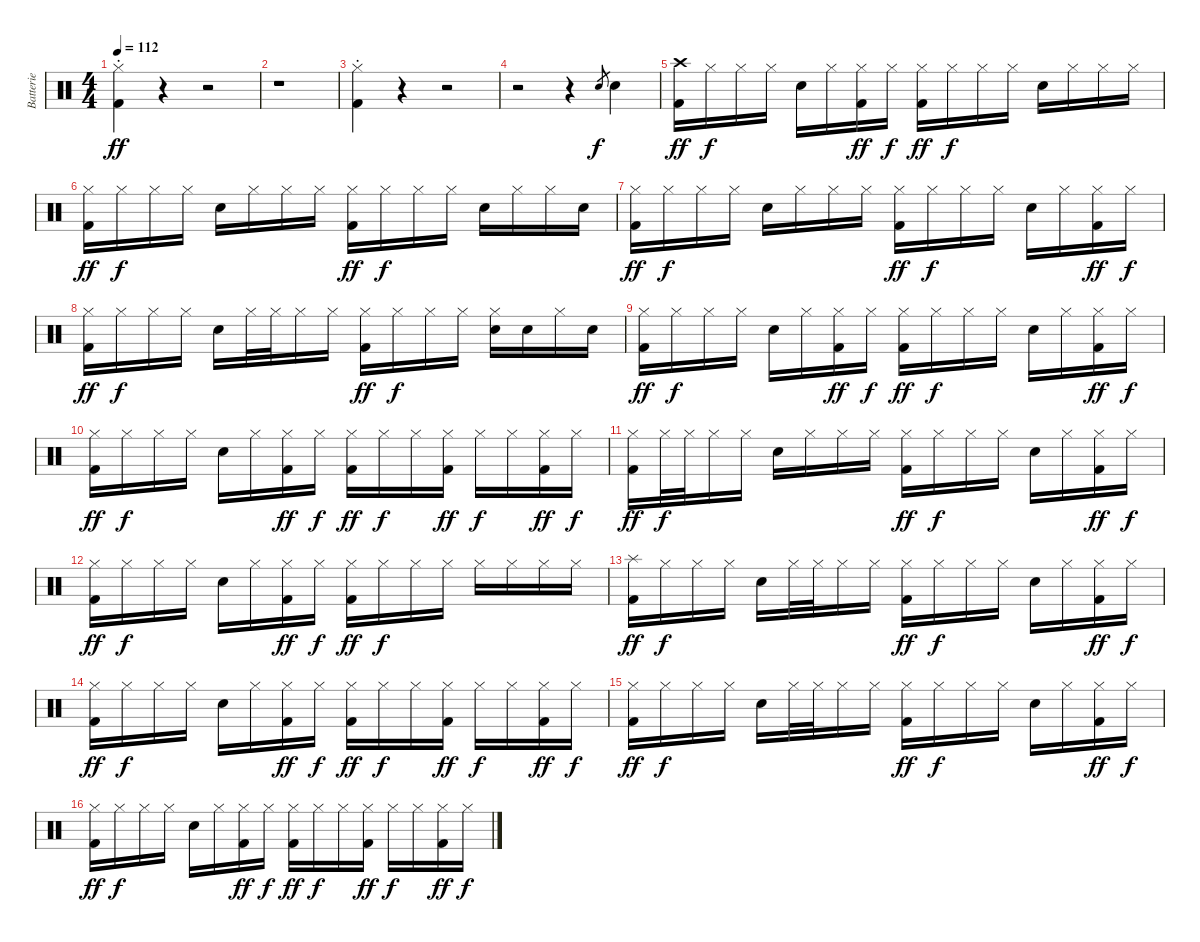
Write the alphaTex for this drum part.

\track ("Batterie" "Batterie") {instrument percussion}
\staff {score}
\articulation defaults
\ts (4 4)
\tempo 112
\clef neutral
\ks c
("Hi-Hat (closed)"{st} "Kick (hit) 2"{st}).4{dy ff} r.4 r.2 |
r.1 |
("Hi-Hat (closed)"{st} "Kick (hit) 2"{st}).4 r.4 r.2 |
r.2 r.4 "Snare (hit) 2".8{gr dy f} "Snare (hit) 2".4 |
("Crash high (hit)" "Kick (hit) 2").16{dy ff} "Hi-Hat (closed)".16{dy f} "Hi-Hat (closed)".16 "Hi-Hat (closed)".16 "Snare (hit) 2".16 "Hi-Hat (closed)".16 ("Hi-Hat (closed)" "Kick (hit) 2").16{dy ff} "Hi-Hat (closed)".16{dy f} ("Hi-Hat (closed)" "Kick (hit) 2").16{dy ff} "Hi-Hat (closed)".16{dy f} "Hi-Hat (closed)".16 "Hi-Hat (closed)".16 "Snare (hit) 2".16 "Hi-Hat (closed)".16 "Hi-Hat (closed)".16 "Hi-Hat (closed)".16 |
("Hi-Hat (closed)" "Kick (hit) 2").16{dy ff} "Hi-Hat (closed)".16{dy f} "Hi-Hat (closed)".16 "Hi-Hat (closed)".16 "Snare (hit) 2".16 "Hi-Hat (closed)".16 "Hi-Hat (closed)".16 "Hi-Hat (closed)".16 ("Hi-Hat (closed)" "Kick (hit) 2").16{dy ff} "Hi-Hat (closed)".16{dy f} "Hi-Hat (closed)".16 "Hi-Hat (closed)".16 "Snare (hit) 2".16 "Hi-Hat (closed)".16 "Hi-Hat (closed)".16 "Snare (hit) 2".16 |
("Hi-Hat (closed)" "Kick (hit) 2").16{dy ff} "Hi-Hat (closed)".16{dy f} "Hi-Hat (closed)".16 "Hi-Hat (closed)".16 "Snare (hit) 2".16 "Hi-Hat (closed)".16 "Hi-Hat (closed)".16 "Hi-Hat (closed)".16 ("Hi-Hat (closed)" "Kick (hit) 2").16{dy ff} "Hi-Hat (closed)".16{dy f} "Hi-Hat (closed)".16 "Hi-Hat (closed)".16 "Snare (hit) 2".16 "Hi-Hat (closed)".16 ("Hi-Hat (closed)" "Kick (hit) 2").16{dy ff} "Hi-Hat (closed)".16{dy f} |
("Hi-Hat (closed)" "Kick (hit) 2").16{dy ff} "Hi-Hat (closed)".16{dy f} "Hi-Hat (closed)".16 "Hi-Hat (closed)".16 "Snare (hit) 2".16 "Hi-Hat (closed)".32 "Hi-Hat (closed)".32 "Hi-Hat (closed)".16 "Hi-Hat (closed)".16 ("Hi-Hat (closed)" "Kick (hit) 2").16{dy ff} "Hi-Hat (closed)".16{dy f} "Hi-Hat (closed)".16 "Hi-Hat (closed)".16 ("Hi-Hat (closed)" "Snare (hit) 2").16 "Snare (hit) 2".16 "Hi-Hat (closed)".16 "Snare (hit) 2".16 |
("Hi-Hat (closed)" "Kick (hit) 2").16{dy ff} "Hi-Hat (closed)".16{dy f} "Hi-Hat (closed)".16 "Hi-Hat (closed)".16 "Snare (hit) 2".16 "Hi-Hat (closed)".16 ("Hi-Hat (closed)" "Kick (hit) 2").16{dy ff} "Hi-Hat (closed)".16{dy f} ("Hi-Hat (closed)" "Kick (hit) 2").16{dy ff} "Hi-Hat (closed)".16{dy f} "Hi-Hat (closed)".16 "Hi-Hat (closed)".16 "Snare (hit) 2".16 "Hi-Hat (closed)".16 ("Hi-Hat (closed)" "Kick (hit) 2").16{dy ff} "Hi-Hat (closed)".16{dy f} |
("Hi-Hat (closed)" "Kick (hit) 2").16{dy ff} "Hi-Hat (closed)".16{dy f} "Hi-Hat (closed)".16 "Hi-Hat (closed)".16 "Snare (hit) 2".16 "Hi-Hat (closed)".16 ("Hi-Hat (closed)" "Kick (hit) 2").16{dy ff} "Hi-Hat (closed)".16{dy f} ("Hi-Hat (closed)" "Kick (hit) 2").16{dy ff} "Hi-Hat (closed)".16{dy f} "Hi-Hat (closed)".16 ("Hi-Hat (closed)" "Kick (hit) 2").16{dy ff} "Hi-Hat (closed)".16{dy f} "Hi-Hat (closed)".16 ("Hi-Hat (closed)" "Kick (hit) 2").16{dy ff} "Hi-Hat (closed)".16{dy f} |
("Hi-Hat (closed)" "Kick (hit) 2").16{dy ff} "Hi-Hat (closed)".32{dy f} "Hi-Hat (closed)".32 "Hi-Hat (closed)".16 "Hi-Hat (closed)".16 "Snare (hit) 2".16 "Hi-Hat (closed)".16 "Hi-Hat (closed)".16 "Hi-Hat (closed)".16 ("Hi-Hat (closed)" "Kick (hit) 2").16{dy ff} "Hi-Hat (closed)".16{dy f} "Hi-Hat (closed)".16 "Hi-Hat (closed)".16 "Snare (hit) 2".16 "Hi-Hat (closed)".16 ("Hi-Hat (closed)" "Kick (hit) 2").16{dy ff} "Hi-Hat (closed)".16{dy f} |
("Hi-Hat (closed)" "Kick (hit) 2").16{dy ff} "Hi-Hat (closed)".16{dy f} "Hi-Hat (closed)".16 "Hi-Hat (closed)".16 "Snare (hit) 2".16 "Hi-Hat (closed)".16 ("Hi-Hat (closed)" "Kick (hit) 2").16{dy ff} "Hi-Hat (closed)".16{dy f} ("Hi-Hat (closed)" "Kick (hit) 2").16{dy ff} "Hi-Hat (closed)".16{dy f} "Hi-Hat (closed)".16 "Hi-Hat (closed)".16 "Hi-Hat (closed)".16 "Hi-Hat (closed)".16 "Hi-Hat (closed)".16 "Hi-Hat (closed)".16 |
("Splash (hit)" "Kick (hit) 2").16{dy ff} "Hi-Hat (closed)".16{dy f} "Hi-Hat (closed)".16 "Hi-Hat (closed)".16 "Snare (hit) 2".16 "Hi-Hat (closed)".32 "Hi-Hat (closed)".32 "Hi-Hat (closed)".16 "Hi-Hat (closed)".16 ("Hi-Hat (closed)" "Kick (hit) 2").16{dy ff} "Hi-Hat (closed)".16{dy f} "Hi-Hat (closed)".16 "Hi-Hat (closed)".16 "Snare (hit) 2".16 "Hi-Hat (closed)".16 ("Hi-Hat (closed)" "Kick (hit) 2").16{dy ff} "Hi-Hat (closed)".16{dy f} |
("Hi-Hat (closed)" "Kick (hit) 2").16{dy ff} "Hi-Hat (closed)".16{dy f} "Hi-Hat (closed)".16 "Hi-Hat (closed)".16 "Snare (hit) 2".16 "Hi-Hat (closed)".16 ("Hi-Hat (closed)" "Kick (hit) 2").16{dy ff} "Hi-Hat (closed)".16{dy f} ("Hi-Hat (closed)" "Kick (hit) 2").16{dy ff} "Hi-Hat (closed)".16{dy f} "Hi-Hat (closed)".16 ("Hi-Hat (closed)" "Kick (hit) 2").16{dy ff} "Hi-Hat (closed)".16{dy f} "Hi-Hat (closed)".16 ("Hi-Hat (closed)" "Kick (hit) 2").16{dy ff} "Hi-Hat (closed)".16{dy f} |
("Hi-Hat (closed)" "Kick (hit) 2").16{dy ff} "Hi-Hat (closed)".16{dy f} "Hi-Hat (closed)".16 "Hi-Hat (closed)".16 "Snare (hit) 2".16 "Hi-Hat (closed)".32 "Hi-Hat (closed)".32 "Hi-Hat (closed)".16 "Hi-Hat (closed)".16 ("Hi-Hat (closed)" "Kick (hit) 2").16{dy ff} "Hi-Hat (closed)".16{dy f} "Hi-Hat (closed)".16 "Hi-Hat (closed)".16 "Snare (hit) 2".16 "Hi-Hat (closed)".16 ("Hi-Hat (closed)" "Kick (hit) 2").16{dy ff} "Hi-Hat (closed)".16{dy f} |
("Hi-Hat (closed)" "Kick (hit) 2").16{dy ff} "Hi-Hat (closed)".16{dy f} "Hi-Hat (closed)".16 "Hi-Hat (closed)".16 "Snare (hit) 2".16 "Hi-Hat (closed)".16 ("Hi-Hat (closed)" "Kick (hit) 2").16{dy ff} "Hi-Hat (closed)".16{dy f} ("Hi-Hat (closed)" "Kick (hit) 2").16{dy ff} "Hi-Hat (closed)".16{dy f} "Hi-Hat (closed)".16 ("Hi-Hat (closed)" "Kick (hit) 2").16{dy ff} "Hi-Hat (closed)".16{dy f} "Hi-Hat (closed)".16 ("Hi-Hat (closed)" "Kick (hit) 2").16{dy ff} "Hi-Hat (closed)".16{dy f}
